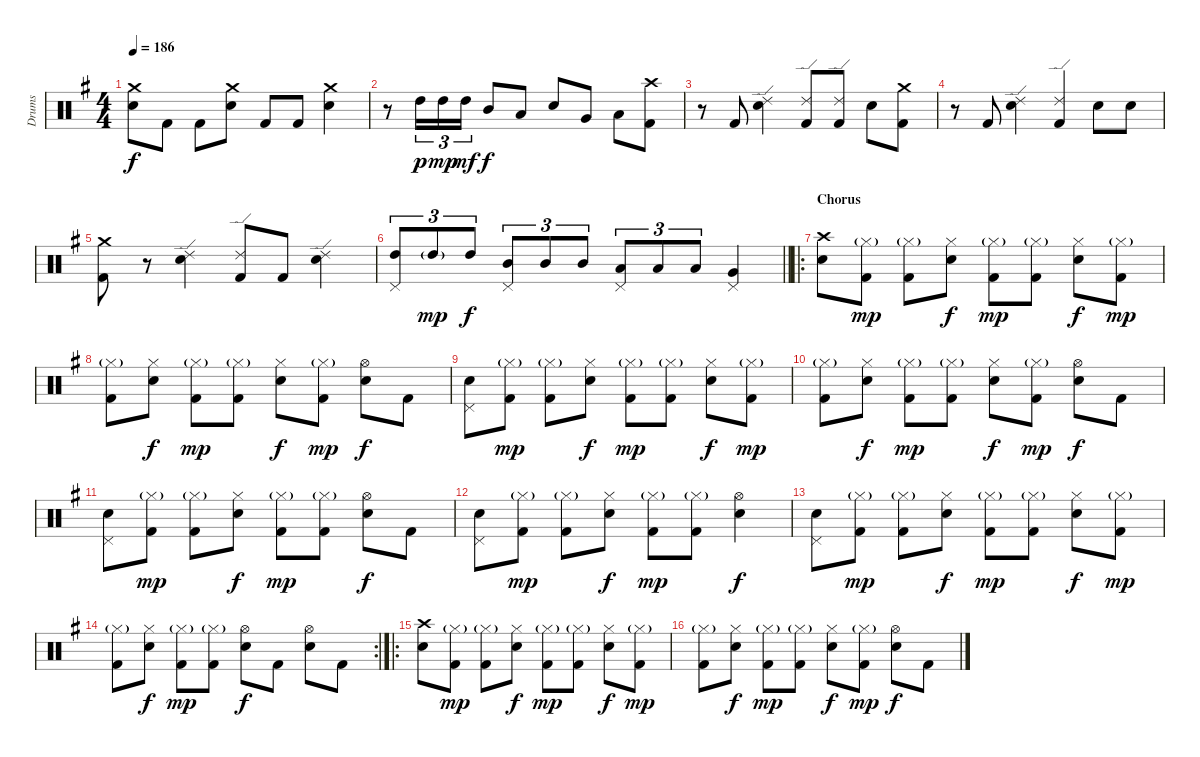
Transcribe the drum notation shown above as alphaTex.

\track ("Drums" "Drums") {instrument percussion}
\staff {score}
\articulation defaults
\ts (4 4)
\tempo 186
\clef neutral
\ks g
("Crash medium (hit)" "Snare (hit) 2").8{dy f} "Kick (hit) 2".8 "Kick (hit) 2".8 ("Crash medium (hit)" "Snare (hit) 2").8 "Kick (hit) 2".8 "Kick (hit) 2".8 ("Crash medium (hit)" "Snare (hit) 2").4 |
r.8 "High Tom (hit)".16{tu (3 2) dy p} "High Tom (hit)".16{tu (3 2) dy mp} "High Tom (hit)".16{tu (3 2) dy mf} "Mid Tom (hit)".8{dy f} "Low Tom (hit)".8 "Snare (hit) 2".8 "Very Low Tom (hit)".8 "Low Floor Tom (hit)".8 ("Crash high (hit)" "Kick (hit) 2").8 |
r.8 "Kick (hit) 2".8 ("Ride (edge) 2" "Snare (hit) 2").4 ("Ride (edge) 2" "Kick (hit) 2").8 ("Ride (edge) 2" "Kick (hit) 2").8 "Snare (hit) 2".8 ("Crash medium (hit)" "Kick (hit) 2").8 |
r.8 "Kick (hit) 2".8 ("Ride (edge) 2" "Snare (hit) 2").4 ("Ride (edge) 2" "Kick (hit) 2").4 "Snare (hit) 2".8 "Snare (hit) 2".8 |
("Crash medium (hit)" "Kick (hit) 2").8 r.8 ("Ride (edge) 2" "Snare (hit) 2").4 ("Ride (edge) 2" "Kick (hit) 2").8 "Kick (hit) 2".8 ("Ride (edge) 2" "Snare (hit) 2").4 |
\barLineRight lightlight
("Pedal Hi-Hat (hit)" "High Tom (hit)").8{tu (3 2)} "High Tom (hit)"{g}.8{tu (3 2) dy mp} "High Tom (hit)".8{tu (3 2) dy f} ("Pedal Hi-Hat (hit)" "Mid Tom (hit)").8{tu (3 2)} "Mid Tom (hit)".8{tu (3 2)} "Mid Tom (hit)".8{tu (3 2)} ("Pedal Hi-Hat (hit)" "Low Tom (hit)").8{tu (3 2)} "Low Tom (hit)".8{tu (3 2)} "Low Tom (hit)".8{tu (3 2)} ("Pedal Hi-Hat (hit)" "Very Low Tom (hit)").4 |
\ro
\section ("" "Chorus")
("Crash high (hit)" "Snare (hit) 2").8 ("Hi-Hat (closed)"{g} "Kick (hit) 2").8{dy mp} ("Hi-Hat (closed)"{g} "Kick (hit) 2").8 ("Hi-Hat (closed)" "Snare (hit) 2").8{dy f} ("Hi-Hat (closed)"{g} "Kick (hit) 2").8{dy mp} ("Hi-Hat (closed)"{g} "Kick (hit) 2").8 ("Hi-Hat (closed)" "Snare (hit) 2").8{dy f} ("Hi-Hat (closed)"{g} "Kick (hit) 2").8{dy mp} |
("Hi-Hat (closed)"{g} "Kick (hit) 2").8 ("Hi-Hat (closed)" "Snare (hit) 2").8{dy f} ("Hi-Hat (closed)"{g} "Kick (hit) 2").8{dy mp} ("Hi-Hat (closed)"{g} "Kick (hit) 2").8 ("Hi-Hat (closed)" "Snare (hit) 2").8{dy f} ("Hi-Hat (closed)"{g} "Kick (hit) 2").8{dy mp} ("Hi-Hat (open)" "Snare (hit) 2").8{dy f} "Kick (hit) 2".8 |
("Pedal Hi-Hat (hit)" "Snare (hit) 2").8 ("Hi-Hat (closed)"{g} "Kick (hit) 2").8{dy mp} ("Hi-Hat (closed)"{g} "Kick (hit) 2").8 ("Hi-Hat (closed)" "Snare (hit) 2").8{dy f} ("Hi-Hat (closed)"{g} "Kick (hit) 2").8{dy mp} ("Hi-Hat (closed)"{g} "Kick (hit) 2").8 ("Hi-Hat (closed)" "Snare (hit) 2").8{dy f} ("Hi-Hat (closed)"{g} "Kick (hit) 2").8{dy mp} |
("Hi-Hat (closed)"{g} "Kick (hit) 2").8 ("Hi-Hat (closed)" "Snare (hit) 2").8{dy f} ("Hi-Hat (closed)"{g} "Kick (hit) 2").8{dy mp} ("Hi-Hat (closed)"{g} "Kick (hit) 2").8 ("Hi-Hat (closed)" "Snare (hit) 2").8{dy f} ("Hi-Hat (closed)"{g} "Kick (hit) 2").8{dy mp} ("Hi-Hat (open)" "Snare (hit) 2").8{dy f} "Kick (hit) 2".8 |
("Pedal Hi-Hat (hit)" "Snare (hit) 2").8 ("Hi-Hat (closed)"{g} "Kick (hit) 2").8{dy mp} ("Hi-Hat (closed)"{g} "Kick (hit) 2").8 ("Hi-Hat (closed)" "Snare (hit) 2").8{dy f} ("Hi-Hat (closed)"{g} "Kick (hit) 2").8{dy mp} ("Hi-Hat (closed)"{g} "Kick (hit) 2").8 ("Hi-Hat (open)" "Snare (hit) 2").8{dy f} "Kick (hit) 2".8 |
("Pedal Hi-Hat (hit)" "Snare (hit) 2").8 ("Hi-Hat (closed)"{g} "Kick (hit) 2").8{dy mp} ("Hi-Hat (closed)"{g} "Kick (hit) 2").8 ("Hi-Hat (closed)" "Snare (hit) 2").8{dy f} ("Hi-Hat (closed)"{g} "Kick (hit) 2").8{dy mp} ("Hi-Hat (closed)"{g} "Kick (hit) 2").8 ("Hi-Hat (open)" "Snare (hit) 2").4{dy f} |
("Pedal Hi-Hat (hit)" "Snare (hit) 2").8 ("Hi-Hat (closed)"{g} "Kick (hit) 2").8{dy mp} ("Hi-Hat (closed)"{g} "Kick (hit) 2").8 ("Hi-Hat (closed)" "Snare (hit) 2").8{dy f} ("Hi-Hat (closed)"{g} "Kick (hit) 2").8{dy mp} ("Hi-Hat (closed)"{g} "Kick (hit) 2").8 ("Hi-Hat (closed)" "Snare (hit) 2").8{dy f} ("Hi-Hat (closed)"{g} "Kick (hit) 2").8{dy mp} |
\rc 2
("Hi-Hat (closed)"{g} "Kick (hit) 2").8 ("Hi-Hat (closed)" "Snare (hit) 2").8{dy f} ("Hi-Hat (closed)"{g} "Kick (hit) 2").8{dy mp} ("Hi-Hat (closed)"{g} "Kick (hit) 2").8 ("Hi-Hat (open)" "Snare (hit) 2").8{dy f} "Kick (hit) 2".8 ("Hi-Hat (open)" "Snare (hit) 2").8 "Kick (hit) 2".8 |
\ro
("Crash high (hit)" "Snare (hit) 2").8 ("Hi-Hat (closed)"{g} "Kick (hit) 2").8{dy mp} ("Hi-Hat (closed)"{g} "Kick (hit) 2").8 ("Hi-Hat (closed)" "Snare (hit) 2").8{dy f} ("Hi-Hat (closed)"{g} "Kick (hit) 2").8{dy mp} ("Hi-Hat (closed)"{g} "Kick (hit) 2").8 ("Hi-Hat (closed)" "Snare (hit) 2").8{dy f} ("Hi-Hat (closed)"{g} "Kick (hit) 2").8{dy mp} |
("Hi-Hat (closed)"{g} "Kick (hit) 2").8 ("Hi-Hat (closed)" "Snare (hit) 2").8{dy f} ("Hi-Hat (closed)"{g} "Kick (hit) 2").8{dy mp} ("Hi-Hat (closed)"{g} "Kick (hit) 2").8 ("Hi-Hat (closed)" "Snare (hit) 2").8{dy f} ("Hi-Hat (closed)"{g} "Kick (hit) 2").8{dy mp} ("Hi-Hat (open)" "Snare (hit) 2").8{dy f} "Kick (hit) 2".8
